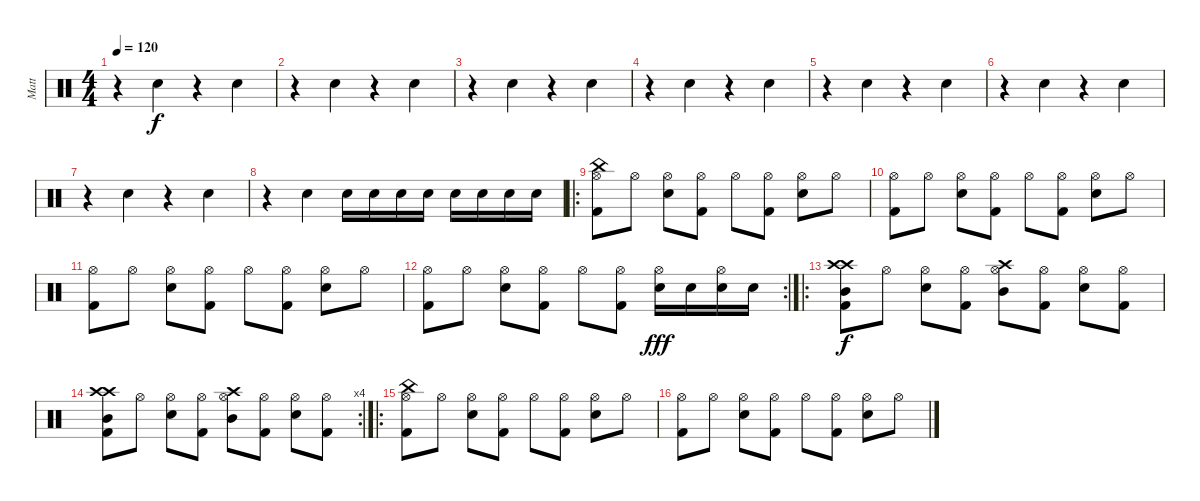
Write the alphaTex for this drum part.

\track ("Matt" "Matt") {instrument percussion}
\staff {score}
\articulation defaults
\ts (4 4)
\tempo 120
\clef neutral
\ks c
r.4{dy f} "Hand Clap (hit)".4 r.4 "Hand Clap (hit)".4 |
r.4 "Hand Clap (hit)".4 r.4 "Hand Clap (hit)".4 |
r.4 "Hand Clap (hit)".4 r.4 "Hand Clap (hit)".4 |
r.4 "Hand Clap (hit)".4 r.4 "Hand Clap (hit)".4 |
r.4 "Hand Clap (hit)".4 r.4 "Hand Clap (hit)".4 |
r.4 "Hand Clap (hit)".4 r.4 "Hand Clap (hit)".4 |
r.4 "Hand Clap (hit)".4 r.4 "Hand Clap (hit)".4 |
r.4 "Hand Clap (hit)".4 "Electric Snare (hit)".16 "Electric Snare (hit)".16 "Electric Snare (hit)".16 "Electric Snare (hit)".16 "Electric Snare (hit)".16 "Electric Snare (hit)".16 "Electric Snare (hit)".16 "Electric Snare (hit)".16 |
\ro
("China (hit)" "Hi-Hat (open)" "Kick (hit) 2").8 "Hi-Hat (open)".8 ("Hi-Hat (open)" "Snare (hit) 2").8 ("Hi-Hat (open)" "Kick (hit) 2").8 "Hi-Hat (open)".8 ("Hi-Hat (open)" "Kick (hit) 2").8 ("Hi-Hat (open)" "Snare (hit) 2").8 "Hi-Hat (open)".8 |
("Hi-Hat (open)" "Kick (hit) 2").8 "Hi-Hat (open)".8 ("Hi-Hat (open)" "Snare (hit) 2").8 ("Hi-Hat (open)" "Kick (hit) 2").8 "Hi-Hat (open)".8 ("Hi-Hat (open)" "Kick (hit) 2").8 ("Hi-Hat (open)" "Snare (hit) 2").8 "Hi-Hat (open)".8 |
("Hi-Hat (open)" "Kick (hit) 2").8 "Hi-Hat (open)".8 ("Hi-Hat (open)" "Snare (hit) 2").8 ("Hi-Hat (open)" "Kick (hit) 2").8 "Hi-Hat (open)".8 ("Hi-Hat (open)" "Kick (hit) 2").8 ("Hi-Hat (open)" "Snare (hit) 2").8 "Hi-Hat (open)".8 |
\rc 2
("Hi-Hat (open)" "Kick (hit) 2").8 "Hi-Hat (open)".8 ("Hi-Hat (open)" "Snare (hit) 2").8 ("Hi-Hat (open)" "Kick (hit) 2").8 "Hi-Hat (open)".8 ("Hi-Hat (open)" "Kick (hit) 2").8 ("Hi-Hat (open)" "Electric Snare (hit)").16{dy fff} "Electric Snare (hit)".16 ("Hi-Hat (open)" "Electric Snare (hit)").16 "Electric Snare (hit)".16 |
\ro
("Mid Tom (hit)" "Crash high (hit)" "Crash high (hit)" "Kick (hit) 2").8{dy f} "Hi-Hat (open)".8 ("Hi-Hat (open)" "Snare (hit) 2").8 ("Hi-Hat (open)" "Kick (hit) 2").8 ("Mid Tom (hit)" "Crash high (hit)" "Hi-Hat (open)").8 ("Hi-Hat (open)" "Kick (hit) 2").8 ("Hi-Hat (open)" "Snare (hit) 2").8 ("Hi-Hat (open)" "Kick (hit) 2").8 |
\rc 4
("Mid Tom (hit)" "Crash high (hit)" "Crash high (hit)" "Kick (hit) 2").8 "Hi-Hat (open)".8 ("Hi-Hat (open)" "Snare (hit) 2").8 ("Hi-Hat (open)" "Kick (hit) 2").8 ("Mid Tom (hit)" "Crash high (hit)" "Hi-Hat (open)").8 ("Hi-Hat (open)" "Kick (hit) 2").8 ("Hi-Hat (open)" "Snare (hit) 2").8 ("Hi-Hat (open)" "Kick (hit) 2").8 |
\ro
("China (hit)" "Hi-Hat (open)" "Kick (hit) 2").8 "Hi-Hat (open)".8 ("Hi-Hat (open)" "Snare (hit) 2").8 ("Hi-Hat (open)" "Kick (hit) 2").8 "Hi-Hat (open)".8 ("Hi-Hat (open)" "Kick (hit) 2").8 ("Hi-Hat (open)" "Snare (hit) 2").8 "Hi-Hat (open)".8 |
("Hi-Hat (open)" "Kick (hit) 2").8 "Hi-Hat (open)".8 ("Hi-Hat (open)" "Snare (hit) 2").8 ("Hi-Hat (open)" "Kick (hit) 2").8 "Hi-Hat (open)".8 ("Hi-Hat (open)" "Kick (hit) 2").8 ("Hi-Hat (open)" "Snare (hit) 2").8 "Hi-Hat (open)".8
